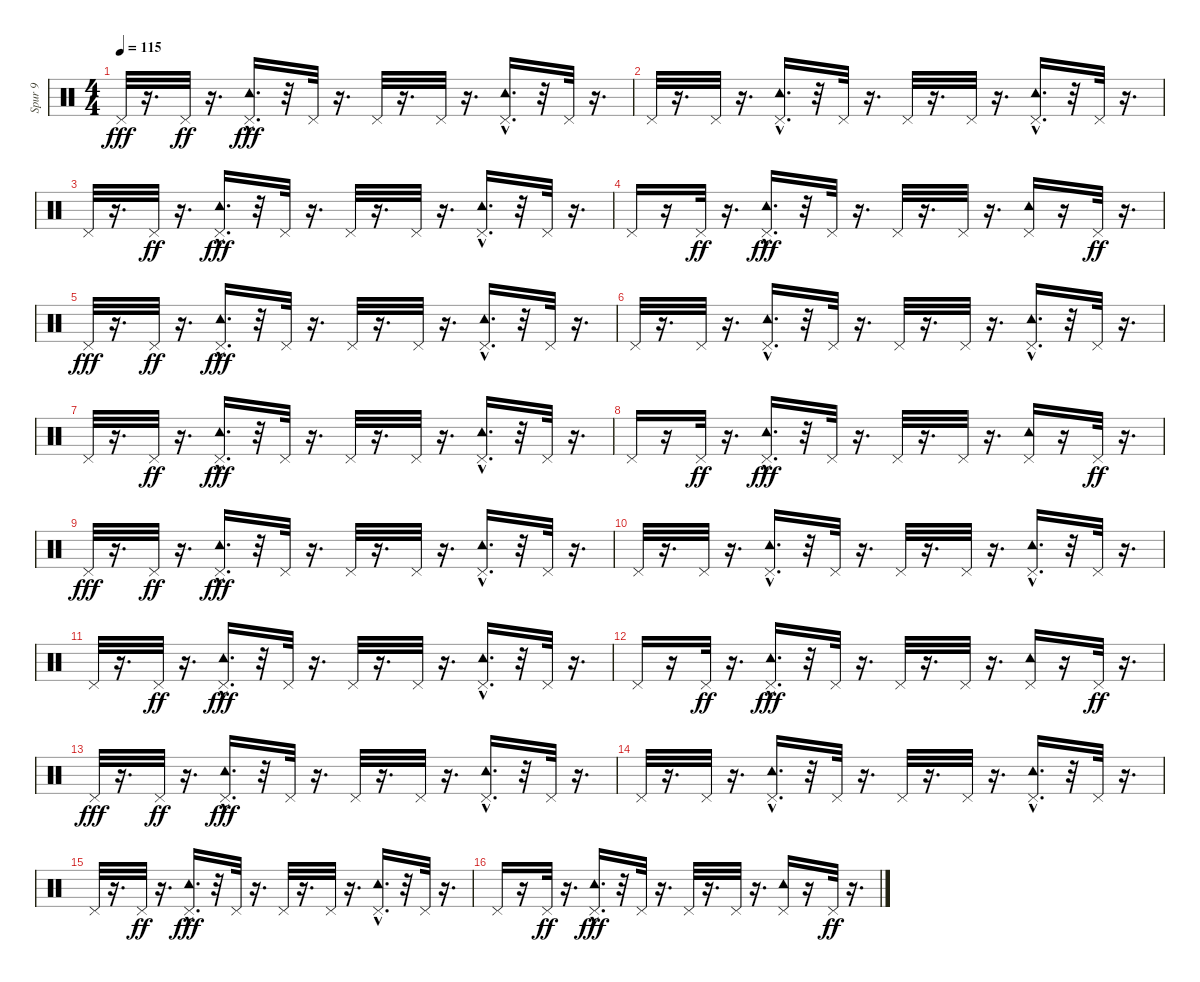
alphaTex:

\track ("Spur 9" "Spur 9") {instrument percussion}
\staff {score}
\articulation defaults
\ts (4 4)
\tempo 115
\clef neutral
\ks c "Pedal Hi-Hat (hit)".32{dy fff}
r.16{d} "Pedal Hi-Hat (hit)".32{dy ff} r.16{d} ("Tambourine (hit)"{hac} "Pedal Hi-Hat (hit)").16{d dy fff} r.32 "Pedal Hi-Hat (hit)".32 r.16{d} "Pedal Hi-Hat (hit)".32 r.16{d} "Pedal Hi-Hat (hit)".32 r.16{d} ("Pedal Hi-Hat (hit)" "Tambourine (hit)"{hac}).16{d} r.32 "Pedal Hi-Hat (hit)".32 r.16{d} |
"Pedal Hi-Hat (hit)".32 r.16{d} "Pedal Hi-Hat (hit)".32 r.16{d} ("Pedal Hi-Hat (hit)" "Tambourine (hit)"{hac}).16{d} r.32 "Pedal Hi-Hat (hit)".32 r.16{d} "Pedal Hi-Hat (hit)".32 r.16{d} "Pedal Hi-Hat (hit)".32 r.16{d} ("Pedal Hi-Hat (hit)" "Tambourine (hit)"{hac}).16{d} r.32 "Pedal Hi-Hat (hit)".32 r.16{d} |
"Pedal Hi-Hat (hit)".32 r.16{d} "Pedal Hi-Hat (hit)".32{dy ff} r.16{d} ("Tambourine (hit)"{hac} "Pedal Hi-Hat (hit)").16{d dy fff} r.32 "Pedal Hi-Hat (hit)".32 r.16{d} "Pedal Hi-Hat (hit)".32 r.16{d} "Pedal Hi-Hat (hit)".32 r.16{d} ("Pedal Hi-Hat (hit)" "Tambourine (hit)"{hac}).16{d} r.32 "Pedal Hi-Hat (hit)".32 r.16{d} |
"Pedal Hi-Hat (hit)".16 r.16 "Pedal Hi-Hat (hit)".32{dy ff} r.16{d} ("Tambourine (hit)"{hac} "Pedal Hi-Hat (hit)").16{d dy fff} r.32 "Pedal Hi-Hat (hit)".32 r.16{d} "Pedal Hi-Hat (hit)".32 r.16{d} "Pedal Hi-Hat (hit)".32 r.16{d} ("Pedal Hi-Hat (hit)" "Tambourine (hit)").16 r.16 "Pedal Hi-Hat (hit)".32{dy ff} r.16{d} |
"Pedal Hi-Hat (hit)".32{dy fff} r.16{d} "Pedal Hi-Hat (hit)".32{dy ff} r.16{d} ("Tambourine (hit)"{hac} "Pedal Hi-Hat (hit)").16{d dy fff} r.32 "Pedal Hi-Hat (hit)".32 r.16{d} "Pedal Hi-Hat (hit)".32 r.16{d} "Pedal Hi-Hat (hit)".32 r.16{d} ("Pedal Hi-Hat (hit)" "Tambourine (hit)"{hac}).16{d} r.32 "Pedal Hi-Hat (hit)".32 r.16{d} |
"Pedal Hi-Hat (hit)".32 r.16{d} "Pedal Hi-Hat (hit)".32 r.16{d} ("Pedal Hi-Hat (hit)" "Tambourine (hit)"{hac}).16{d} r.32 "Pedal Hi-Hat (hit)".32 r.16{d} "Pedal Hi-Hat (hit)".32 r.16{d} "Pedal Hi-Hat (hit)".32 r.16{d} ("Pedal Hi-Hat (hit)" "Tambourine (hit)"{hac}).16{d} r.32 "Pedal Hi-Hat (hit)".32 r.16{d} |
"Pedal Hi-Hat (hit)".32 r.16{d} "Pedal Hi-Hat (hit)".32{dy ff} r.16{d} ("Tambourine (hit)"{hac} "Pedal Hi-Hat (hit)").16{d dy fff} r.32 "Pedal Hi-Hat (hit)".32 r.16{d} "Pedal Hi-Hat (hit)".32 r.16{d} "Pedal Hi-Hat (hit)".32 r.16{d} ("Pedal Hi-Hat (hit)" "Tambourine (hit)"{hac}).16{d} r.32 "Pedal Hi-Hat (hit)".32 r.16{d} |
"Pedal Hi-Hat (hit)".16 r.16 "Pedal Hi-Hat (hit)".32{dy ff} r.16{d} ("Tambourine (hit)"{hac} "Pedal Hi-Hat (hit)").16{d dy fff} r.32 "Pedal Hi-Hat (hit)".32 r.16{d} "Pedal Hi-Hat (hit)".32 r.16{d} "Pedal Hi-Hat (hit)".32 r.16{d} ("Pedal Hi-Hat (hit)" "Tambourine (hit)").16 r.16 "Pedal Hi-Hat (hit)".32{dy ff} r.16{d} |
"Pedal Hi-Hat (hit)".32{dy fff} r.16{d} "Pedal Hi-Hat (hit)".32{dy ff} r.16{d} ("Tambourine (hit)"{hac} "Pedal Hi-Hat (hit)").16{d dy fff} r.32 "Pedal Hi-Hat (hit)".32 r.16{d} "Pedal Hi-Hat (hit)".32 r.16{d} "Pedal Hi-Hat (hit)".32 r.16{d} ("Pedal Hi-Hat (hit)" "Tambourine (hit)"{hac}).16{d} r.32 "Pedal Hi-Hat (hit)".32 r.16{d} |
"Pedal Hi-Hat (hit)".32 r.16{d} "Pedal Hi-Hat (hit)".32 r.16{d} ("Pedal Hi-Hat (hit)" "Tambourine (hit)"{hac}).16{d} r.32 "Pedal Hi-Hat (hit)".32 r.16{d} "Pedal Hi-Hat (hit)".32 r.16{d} "Pedal Hi-Hat (hit)".32 r.16{d} ("Pedal Hi-Hat (hit)" "Tambourine (hit)"{hac}).16{d} r.32 "Pedal Hi-Hat (hit)".32 r.16{d} |
"Pedal Hi-Hat (hit)".32 r.16{d} "Pedal Hi-Hat (hit)".32{dy ff} r.16{d} ("Tambourine (hit)"{hac} "Pedal Hi-Hat (hit)").16{d dy fff} r.32 "Pedal Hi-Hat (hit)".32 r.16{d} "Pedal Hi-Hat (hit)".32 r.16{d} "Pedal Hi-Hat (hit)".32 r.16{d} ("Pedal Hi-Hat (hit)" "Tambourine (hit)"{hac}).16{d} r.32 "Pedal Hi-Hat (hit)".32 r.16{d} |
"Pedal Hi-Hat (hit)".16 r.16 "Pedal Hi-Hat (hit)".32{dy ff} r.16{d} ("Tambourine (hit)"{hac} "Pedal Hi-Hat (hit)").16{d dy fff} r.32 "Pedal Hi-Hat (hit)".32 r.16{d} "Pedal Hi-Hat (hit)".32 r.16{d} "Pedal Hi-Hat (hit)".32 r.16{d} ("Pedal Hi-Hat (hit)" "Tambourine (hit)").16 r.16 "Pedal Hi-Hat (hit)".32{dy ff} r.16{d} |
"Pedal Hi-Hat (hit)".32{dy fff} r.16{d} "Pedal Hi-Hat (hit)".32{dy ff} r.16{d} ("Tambourine (hit)"{hac} "Pedal Hi-Hat (hit)").16{d dy fff} r.32 "Pedal Hi-Hat (hit)".32 r.16{d} "Pedal Hi-Hat (hit)".32 r.16{d} "Pedal Hi-Hat (hit)".32 r.16{d} ("Pedal Hi-Hat (hit)" "Tambourine (hit)"{hac}).16{d} r.32 "Pedal Hi-Hat (hit)".32 r.16{d} |
"Pedal Hi-Hat (hit)".32 r.16{d} "Pedal Hi-Hat (hit)".32 r.16{d} ("Pedal Hi-Hat (hit)" "Tambourine (hit)"{hac}).16{d} r.32 "Pedal Hi-Hat (hit)".32 r.16{d} "Pedal Hi-Hat (hit)".32 r.16{d} "Pedal Hi-Hat (hit)".32 r.16{d} ("Pedal Hi-Hat (hit)" "Tambourine (hit)"{hac}).16{d} r.32 "Pedal Hi-Hat (hit)".32 r.16{d} |
"Pedal Hi-Hat (hit)".32 r.16{d} "Pedal Hi-Hat (hit)".32{dy ff} r.16{d} ("Tambourine (hit)"{hac} "Pedal Hi-Hat (hit)").16{d dy fff} r.32 "Pedal Hi-Hat (hit)".32 r.16{d} "Pedal Hi-Hat (hit)".32 r.16{d} "Pedal Hi-Hat (hit)".32 r.16{d} ("Pedal Hi-Hat (hit)" "Tambourine (hit)"{hac}).16{d} r.32 "Pedal Hi-Hat (hit)".32 r.16{d} |
"Pedal Hi-Hat (hit)".16 r.16 "Pedal Hi-Hat (hit)".32{dy ff} r.16{d} ("Tambourine (hit)"{hac} "Pedal Hi-Hat (hit)").16{d dy fff} r.32 "Pedal Hi-Hat (hit)".32 r.16{d} "Pedal Hi-Hat (hit)".32 r.16{d} "Pedal Hi-Hat (hit)".32 r.16{d} ("Pedal Hi-Hat (hit)" "Tambourine (hit)").16 r.16 "Pedal Hi-Hat (hit)".32{dy ff} r.16{d}
